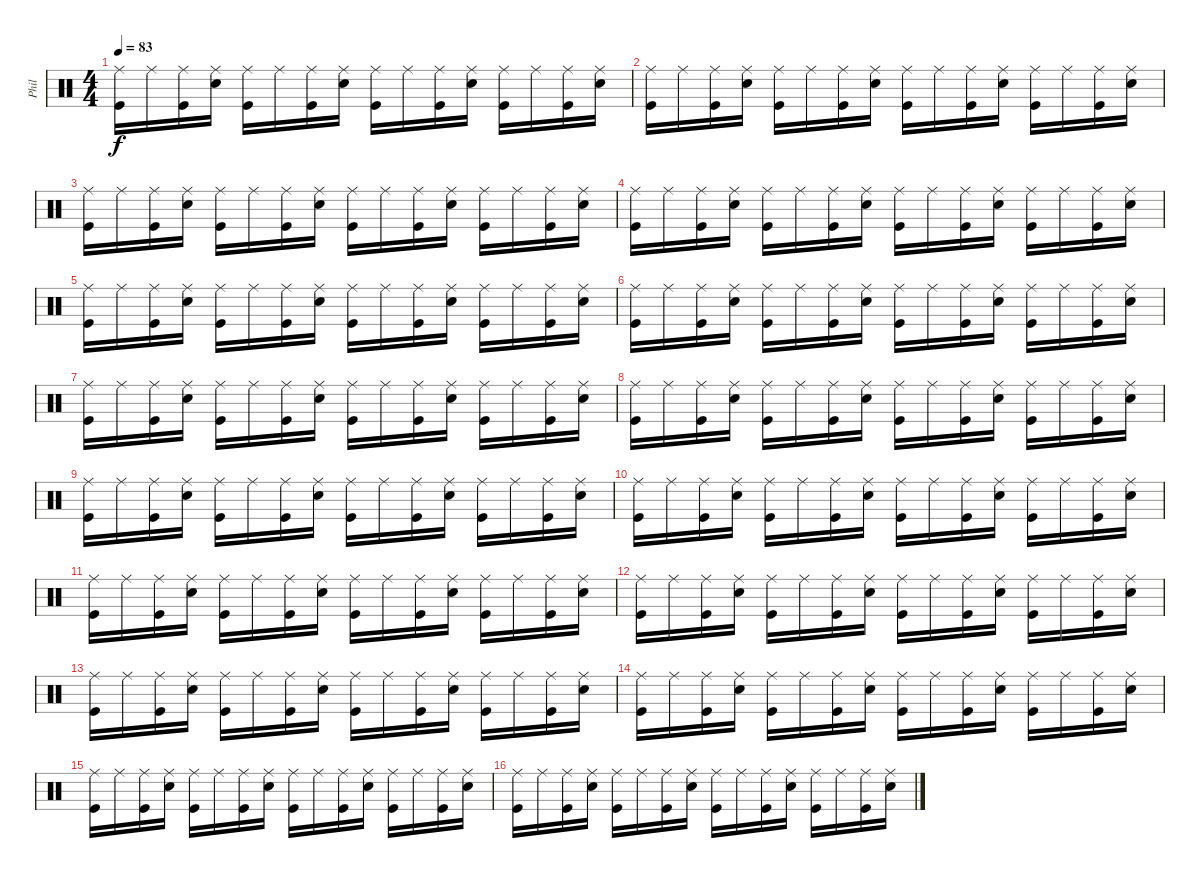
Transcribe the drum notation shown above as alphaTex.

\track ("Phil" "Phil") {instrument percussion}
\staff {score}
\articulation defaults
\ts (4 4)
\tempo 83
\clef neutral
\ks c
("Ride (middle)" "Kick (hit)").16{dy f} "Ride (middle)".16 ("Ride (middle)" "Kick (hit)").16 ("Ride (middle)" "Snare (hit) 2").16 ("Ride (middle)" "Kick (hit)").16 "Ride (middle)".16 ("Ride (middle)" "Kick (hit)").16 ("Ride (middle)" "Snare (hit) 2").16 ("Ride (middle)" "Kick (hit)").16 "Ride (middle)".16 ("Ride (middle)" "Kick (hit)").16 ("Ride (middle)" "Snare (hit) 2").16 ("Ride (middle)" "Kick (hit)").16 "Ride (middle)".16 ("Ride (middle)" "Kick (hit)").16 ("Ride (middle)" "Snare (hit) 2").16 |
("Ride (middle)" "Kick (hit)").16 "Ride (middle)".16 ("Ride (middle)" "Kick (hit)").16 ("Ride (middle)" "Snare (hit) 2").16 ("Ride (middle)" "Kick (hit)").16 "Ride (middle)".16 ("Ride (middle)" "Kick (hit)").16 ("Ride (middle)" "Snare (hit) 2").16 ("Ride (middle)" "Kick (hit)").16 "Ride (middle)".16 ("Ride (middle)" "Kick (hit)").16 ("Ride (middle)" "Snare (hit) 2").16 ("Ride (middle)" "Kick (hit)").16 "Ride (middle)".16 ("Ride (middle)" "Kick (hit)").16 ("Ride (middle)" "Snare (hit) 2").16 |
("Ride (middle)" "Kick (hit)").16 "Ride (middle)".16 ("Ride (middle)" "Kick (hit)").16 ("Ride (middle)" "Snare (hit) 2").16 ("Ride (middle)" "Kick (hit)").16 "Ride (middle)".16 ("Ride (middle)" "Kick (hit)").16 ("Ride (middle)" "Snare (hit) 2").16 ("Ride (middle)" "Kick (hit)").16 "Ride (middle)".16 ("Ride (middle)" "Kick (hit)").16 ("Ride (middle)" "Snare (hit) 2").16 ("Ride (middle)" "Kick (hit)").16 "Ride (middle)".16 ("Ride (middle)" "Kick (hit)").16 ("Ride (middle)" "Snare (hit) 2").16 |
("Ride (middle)" "Kick (hit)").16 "Ride (middle)".16 ("Ride (middle)" "Kick (hit)").16 ("Ride (middle)" "Snare (hit) 2").16 ("Ride (middle)" "Kick (hit)").16 "Ride (middle)".16 ("Ride (middle)" "Kick (hit)").16 ("Ride (middle)" "Snare (hit) 2").16 ("Ride (middle)" "Kick (hit)").16 "Ride (middle)".16 ("Ride (middle)" "Kick (hit)").16 ("Ride (middle)" "Snare (hit) 2").16 ("Ride (middle)" "Kick (hit)").16 "Ride (middle)".16 ("Ride (middle)" "Kick (hit)").16 ("Ride (middle)" "Snare (hit) 2").16 |
("Ride (middle)" "Kick (hit)").16 "Ride (middle)".16 ("Ride (middle)" "Kick (hit)").16 ("Ride (middle)" "Snare (hit) 2").16 ("Ride (middle)" "Kick (hit)").16 "Ride (middle)".16 ("Ride (middle)" "Kick (hit)").16 ("Ride (middle)" "Snare (hit) 2").16 ("Ride (middle)" "Kick (hit)").16 "Ride (middle)".16 ("Ride (middle)" "Kick (hit)").16 ("Ride (middle)" "Snare (hit) 2").16 ("Ride (middle)" "Kick (hit)").16 "Ride (middle)".16 ("Ride (middle)" "Kick (hit)").16 ("Ride (middle)" "Snare (hit) 2").16 |
("Ride (middle)" "Kick (hit)").16 "Ride (middle)".16 ("Ride (middle)" "Kick (hit)").16 ("Ride (middle)" "Snare (hit) 2").16 ("Ride (middle)" "Kick (hit)").16 "Ride (middle)".16 ("Ride (middle)" "Kick (hit)").16 ("Ride (middle)" "Snare (hit) 2").16 ("Ride (middle)" "Kick (hit)").16 "Ride (middle)".16 ("Ride (middle)" "Kick (hit)").16 ("Ride (middle)" "Snare (hit) 2").16 ("Ride (middle)" "Kick (hit)").16 "Ride (middle)".16 ("Ride (middle)" "Kick (hit)").16 ("Ride (middle)" "Snare (hit) 2").16 |
("Ride (middle)" "Kick (hit)").16 "Ride (middle)".16 ("Ride (middle)" "Kick (hit)").16 ("Ride (middle)" "Snare (hit) 2").16 ("Ride (middle)" "Kick (hit)").16 "Ride (middle)".16 ("Ride (middle)" "Kick (hit)").16 ("Ride (middle)" "Snare (hit) 2").16 ("Ride (middle)" "Kick (hit)").16 "Ride (middle)".16 ("Ride (middle)" "Kick (hit)").16 ("Ride (middle)" "Snare (hit) 2").16 ("Ride (middle)" "Kick (hit)").16 "Ride (middle)".16 ("Ride (middle)" "Kick (hit)").16 ("Ride (middle)" "Snare (hit) 2").16 |
("Ride (middle)" "Kick (hit)").16 "Ride (middle)".16 ("Ride (middle)" "Kick (hit)").16 ("Ride (middle)" "Snare (hit) 2").16 ("Ride (middle)" "Kick (hit)").16 "Ride (middle)".16 ("Ride (middle)" "Kick (hit)").16 ("Ride (middle)" "Snare (hit) 2").16 ("Ride (middle)" "Kick (hit)").16 "Ride (middle)".16 ("Ride (middle)" "Kick (hit)").16 ("Ride (middle)" "Snare (hit) 2").16 ("Ride (middle)" "Kick (hit)").16 "Ride (middle)".16 ("Ride (middle)" "Kick (hit)").16 ("Ride (middle)" "Snare (hit) 2").16 |
("Ride (middle)" "Kick (hit)").16 "Ride (middle)".16 ("Ride (middle)" "Kick (hit)").16 ("Ride (middle)" "Snare (hit) 2").16 ("Ride (middle)" "Kick (hit)").16 "Ride (middle)".16 ("Ride (middle)" "Kick (hit)").16 ("Ride (middle)" "Snare (hit) 2").16 ("Ride (middle)" "Kick (hit)").16 "Ride (middle)".16 ("Ride (middle)" "Kick (hit)").16 ("Ride (middle)" "Snare (hit) 2").16 ("Ride (middle)" "Kick (hit)").16 "Ride (middle)".16 ("Ride (middle)" "Kick (hit)").16 ("Ride (middle)" "Snare (hit) 2").16 |
("Ride (middle)" "Kick (hit)").16 "Ride (middle)".16 ("Ride (middle)" "Kick (hit)").16 ("Ride (middle)" "Snare (hit) 2").16 ("Ride (middle)" "Kick (hit)").16 "Ride (middle)".16 ("Ride (middle)" "Kick (hit)").16 ("Ride (middle)" "Snare (hit) 2").16 ("Ride (middle)" "Kick (hit)").16 "Ride (middle)".16 ("Ride (middle)" "Kick (hit)").16 ("Ride (middle)" "Snare (hit) 2").16 ("Ride (middle)" "Kick (hit)").16 "Ride (middle)".16 ("Ride (middle)" "Kick (hit)").16 ("Ride (middle)" "Snare (hit) 2").16 |
("Ride (middle)" "Kick (hit)").16 "Ride (middle)".16 ("Ride (middle)" "Kick (hit)").16 ("Ride (middle)" "Snare (hit) 2").16 ("Ride (middle)" "Kick (hit)").16 "Ride (middle)".16 ("Ride (middle)" "Kick (hit)").16 ("Ride (middle)" "Snare (hit) 2").16 ("Ride (middle)" "Kick (hit)").16 "Ride (middle)".16 ("Ride (middle)" "Kick (hit)").16 ("Ride (middle)" "Snare (hit) 2").16 ("Ride (middle)" "Kick (hit)").16 "Ride (middle)".16 ("Ride (middle)" "Kick (hit)").16 ("Ride (middle)" "Snare (hit) 2").16 |
("Ride (middle)" "Kick (hit)").16 "Ride (middle)".16 ("Ride (middle)" "Kick (hit)").16 ("Ride (middle)" "Snare (hit) 2").16 ("Ride (middle)" "Kick (hit)").16 "Ride (middle)".16 ("Ride (middle)" "Kick (hit)").16 ("Ride (middle)" "Snare (hit) 2").16 ("Ride (middle)" "Kick (hit)").16 "Ride (middle)".16 ("Ride (middle)" "Kick (hit)").16 ("Ride (middle)" "Snare (hit) 2").16 ("Ride (middle)" "Kick (hit)").16 "Ride (middle)".16 ("Ride (middle)" "Kick (hit)").16 ("Ride (middle)" "Snare (hit) 2").16 |
("Ride (middle)" "Kick (hit)").16 "Ride (middle)".16 ("Ride (middle)" "Kick (hit)").16 ("Ride (middle)" "Snare (hit) 2").16 ("Ride (middle)" "Kick (hit)").16 "Ride (middle)".16 ("Ride (middle)" "Kick (hit)").16 ("Ride (middle)" "Snare (hit) 2").16 ("Ride (middle)" "Kick (hit)").16 "Ride (middle)".16 ("Ride (middle)" "Kick (hit)").16 ("Ride (middle)" "Snare (hit) 2").16 ("Ride (middle)" "Kick (hit)").16 "Ride (middle)".16 ("Ride (middle)" "Kick (hit)").16 ("Ride (middle)" "Snare (hit) 2").16 |
("Ride (middle)" "Kick (hit)").16 "Ride (middle)".16 ("Ride (middle)" "Kick (hit)").16 ("Ride (middle)" "Snare (hit) 2").16 ("Ride (middle)" "Kick (hit)").16 "Ride (middle)".16 ("Ride (middle)" "Kick (hit)").16 ("Ride (middle)" "Snare (hit) 2").16 ("Ride (middle)" "Kick (hit)").16 "Ride (middle)".16 ("Ride (middle)" "Kick (hit)").16 ("Ride (middle)" "Snare (hit) 2").16 ("Ride (middle)" "Kick (hit)").16 "Ride (middle)".16 ("Ride (middle)" "Kick (hit)").16 ("Ride (middle)" "Snare (hit) 2").16 |
("Ride (middle)" "Kick (hit)").16 "Ride (middle)".16 ("Ride (middle)" "Kick (hit)").16 ("Ride (middle)" "Snare (hit) 2").16 ("Ride (middle)" "Kick (hit)").16 "Ride (middle)".16 ("Ride (middle)" "Kick (hit)").16 ("Ride (middle)" "Snare (hit) 2").16 ("Ride (middle)" "Kick (hit)").16 "Ride (middle)".16 ("Ride (middle)" "Kick (hit)").16 ("Ride (middle)" "Snare (hit) 2").16 ("Ride (middle)" "Kick (hit)").16 "Ride (middle)".16 ("Ride (middle)" "Kick (hit)").16 ("Ride (middle)" "Snare (hit) 2").16 |
("Ride (middle)" "Kick (hit)").16 "Ride (middle)".16 ("Ride (middle)" "Kick (hit)").16 ("Ride (middle)" "Snare (hit) 2").16 ("Ride (middle)" "Kick (hit)").16 "Ride (middle)".16 ("Ride (middle)" "Kick (hit)").16 ("Ride (middle)" "Snare (hit) 2").16 ("Ride (middle)" "Kick (hit)").16 "Ride (middle)".16 ("Ride (middle)" "Kick (hit)").16 ("Ride (middle)" "Snare (hit) 2").16 ("Ride (middle)" "Kick (hit)").16 "Ride (middle)".16 ("Ride (middle)" "Kick (hit)").16 ("Ride (middle)" "Snare (hit) 2").16
